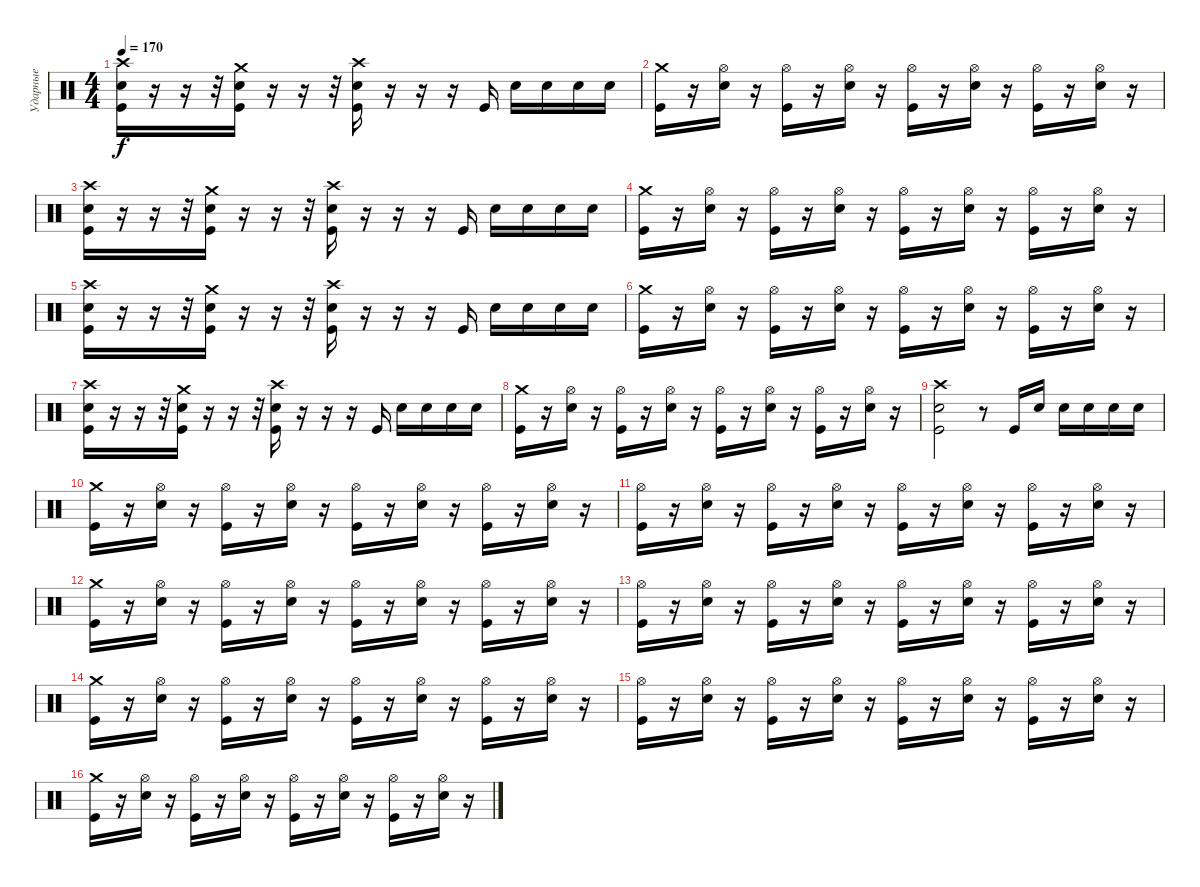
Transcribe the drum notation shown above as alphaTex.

\track ("Ударные" "Ударные") {instrument percussion}
\staff {score}
\articulation defaults
\ts (4 4)
\tempo 170
\clef neutral
\ks c
("Crash high (hit)" "Electric Snare (hit)" "Kick (hit)").16{dy f} r.16 r.16 r.32 ("Crash medium (hit)" "Electric Snare (hit)" "Kick (hit)").16 r.16 r.16 r.32 ("Crash high (hit)" "Electric Snare (hit)" "Kick (hit)").16 r.16 r.16 r.16 "Kick (hit)".16 "Electric Snare (hit)".16 "Electric Snare (hit)".16 "Electric Snare (hit)".16 "Electric Snare (hit)".16 |
("Crash medium (hit)" "Kick (hit)").16 r.16 ("Hi-Hat (open)" "Electric Snare (hit)").16 r.16 ("Hi-Hat (open)" "Kick (hit)").16 r.16 ("Hi-Hat (open)" "Electric Snare (hit)").16 r.16 ("Hi-Hat (open)" "Kick (hit)").16 r.16 ("Hi-Hat (open)" "Electric Snare (hit)").16 r.16 ("Hi-Hat (open)" "Kick (hit)").16 r.16 ("Hi-Hat (open)" "Electric Snare (hit)").16 r.16 |
("Crash high (hit)" "Electric Snare (hit)" "Kick (hit)").16 r.16 r.16 r.32 ("Crash medium (hit)" "Electric Snare (hit)" "Kick (hit)").16 r.16 r.16 r.32 ("Crash high (hit)" "Electric Snare (hit)" "Kick (hit)").16 r.16 r.16 r.16 "Kick (hit)".16 "Electric Snare (hit)".16 "Electric Snare (hit)".16 "Electric Snare (hit)".16 "Electric Snare (hit)".16 |
("Crash medium (hit)" "Kick (hit)").16 r.16 ("Hi-Hat (open)" "Electric Snare (hit)").16 r.16 ("Hi-Hat (open)" "Kick (hit)").16 r.16 ("Hi-Hat (open)" "Electric Snare (hit)").16 r.16 ("Hi-Hat (open)" "Kick (hit)").16 r.16 ("Hi-Hat (open)" "Electric Snare (hit)").16 r.16 ("Hi-Hat (open)" "Kick (hit)").16 r.16 ("Hi-Hat (open)" "Electric Snare (hit)").16 r.16 |
("Crash high (hit)" "Electric Snare (hit)" "Kick (hit)").16 r.16 r.16 r.32 ("Crash medium (hit)" "Electric Snare (hit)" "Kick (hit)").16 r.16 r.16 r.32 ("Crash high (hit)" "Electric Snare (hit)" "Kick (hit)").16 r.16 r.16 r.16 "Kick (hit)".16 "Electric Snare (hit)".16 "Electric Snare (hit)".16 "Electric Snare (hit)".16 "Electric Snare (hit)".16 |
("Crash medium (hit)" "Kick (hit)").16 r.16 ("Hi-Hat (open)" "Electric Snare (hit)").16 r.16 ("Hi-Hat (open)" "Kick (hit)").16 r.16 ("Hi-Hat (open)" "Electric Snare (hit)").16 r.16 ("Hi-Hat (open)" "Kick (hit)").16 r.16 ("Hi-Hat (open)" "Electric Snare (hit)").16 r.16 ("Hi-Hat (open)" "Kick (hit)").16 r.16 ("Hi-Hat (open)" "Electric Snare (hit)").16 r.16 |
("Crash high (hit)" "Electric Snare (hit)" "Kick (hit)").16 r.16 r.16 r.32 ("Crash medium (hit)" "Electric Snare (hit)" "Kick (hit)").16 r.16 r.16 r.32 ("Crash high (hit)" "Electric Snare (hit)" "Kick (hit)").16 r.16 r.16 r.16 "Kick (hit)".16 "Electric Snare (hit)".16 "Electric Snare (hit)".16 "Electric Snare (hit)".16 "Electric Snare (hit)".16 |
("Crash medium (hit)" "Kick (hit)").16 r.16 ("Hi-Hat (open)" "Electric Snare (hit)").16 r.16 ("Hi-Hat (open)" "Kick (hit)").16 r.16 ("Hi-Hat (open)" "Electric Snare (hit)").16 r.16 ("Hi-Hat (open)" "Kick (hit)").16 r.16 ("Hi-Hat (open)" "Electric Snare (hit)").16 r.16 ("Hi-Hat (open)" "Kick (hit)").16 r.16 ("Hi-Hat (open)" "Electric Snare (hit)").16 r.16 |
("Crash high (hit)" "Electric Snare (hit)" "Kick (hit)").2 r.8 "Kick (hit)".16 "Electric Snare (hit)".16 "Electric Snare (hit)".16 "Electric Snare (hit)".16 "Electric Snare (hit)".16 "Electric Snare (hit)".16 |
("Crash medium (hit)" "Kick (hit)").16 r.16 ("Hi-Hat (open)" "Electric Snare (hit)").16 r.16 ("Hi-Hat (open)" "Kick (hit)").16 r.16 ("Hi-Hat (open)" "Electric Snare (hit)").16 r.16 ("Hi-Hat (open)" "Kick (hit)").16 r.16 ("Hi-Hat (open)" "Electric Snare (hit)").16 r.16 ("Hi-Hat (open)" "Kick (hit)").16 r.16 ("Hi-Hat (open)" "Electric Snare (hit)").16 r.16 |
("Hi-Hat (open)" "Kick (hit)").16 r.16 ("Hi-Hat (open)" "Electric Snare (hit)").16 r.16 ("Hi-Hat (open)" "Kick (hit)").16 r.16 ("Hi-Hat (open)" "Electric Snare (hit)").16 r.16 ("Hi-Hat (open)" "Kick (hit)").16 r.16 ("Hi-Hat (open)" "Electric Snare (hit)").16 r.16 ("Hi-Hat (open)" "Kick (hit)").16 r.16 ("Hi-Hat (open)" "Electric Snare (hit)").16 r.16 |
("Crash medium (hit)" "Kick (hit)").16 r.16 ("Hi-Hat (open)" "Electric Snare (hit)").16 r.16 ("Hi-Hat (open)" "Kick (hit)").16 r.16 ("Hi-Hat (open)" "Electric Snare (hit)").16 r.16 ("Hi-Hat (open)" "Kick (hit)").16 r.16 ("Hi-Hat (open)" "Electric Snare (hit)").16 r.16 ("Hi-Hat (open)" "Kick (hit)").16 r.16 ("Hi-Hat (open)" "Electric Snare (hit)").16 r.16 |
("Hi-Hat (open)" "Kick (hit)").16 r.16 ("Hi-Hat (open)" "Electric Snare (hit)").16 r.16 ("Hi-Hat (open)" "Kick (hit)").16 r.16 ("Hi-Hat (open)" "Electric Snare (hit)").16 r.16 ("Hi-Hat (open)" "Kick (hit)").16 r.16 ("Hi-Hat (open)" "Electric Snare (hit)").16 r.16 ("Hi-Hat (open)" "Kick (hit)").16 r.16 ("Hi-Hat (open)" "Electric Snare (hit)").16 r.16 |
("Crash medium (hit)" "Kick (hit)").16 r.16 ("Hi-Hat (open)" "Electric Snare (hit)").16 r.16 ("Hi-Hat (open)" "Kick (hit)").16 r.16 ("Hi-Hat (open)" "Electric Snare (hit)").16 r.16 ("Hi-Hat (open)" "Kick (hit)").16 r.16 ("Hi-Hat (open)" "Electric Snare (hit)").16 r.16 ("Hi-Hat (open)" "Kick (hit)").16 r.16 ("Hi-Hat (open)" "Electric Snare (hit)").16 r.16 |
("Hi-Hat (open)" "Kick (hit)").16 r.16 ("Hi-Hat (open)" "Electric Snare (hit)").16 r.16 ("Hi-Hat (open)" "Kick (hit)").16 r.16 ("Hi-Hat (open)" "Electric Snare (hit)").16 r.16 ("Hi-Hat (open)" "Kick (hit)").16 r.16 ("Hi-Hat (open)" "Electric Snare (hit)").16 r.16 ("Hi-Hat (open)" "Kick (hit)").16 r.16 ("Hi-Hat (open)" "Electric Snare (hit)").16 r.16 |
("Crash medium (hit)" "Kick (hit)").16 r.16 ("Hi-Hat (open)" "Electric Snare (hit)").16 r.16 ("Hi-Hat (open)" "Kick (hit)").16 r.16 ("Hi-Hat (open)" "Electric Snare (hit)").16 r.16 ("Hi-Hat (open)" "Kick (hit)").16 r.16 ("Hi-Hat (open)" "Electric Snare (hit)").16 r.16 ("Hi-Hat (open)" "Kick (hit)").16 r.16 ("Hi-Hat (open)" "Electric Snare (hit)").16 r.16
